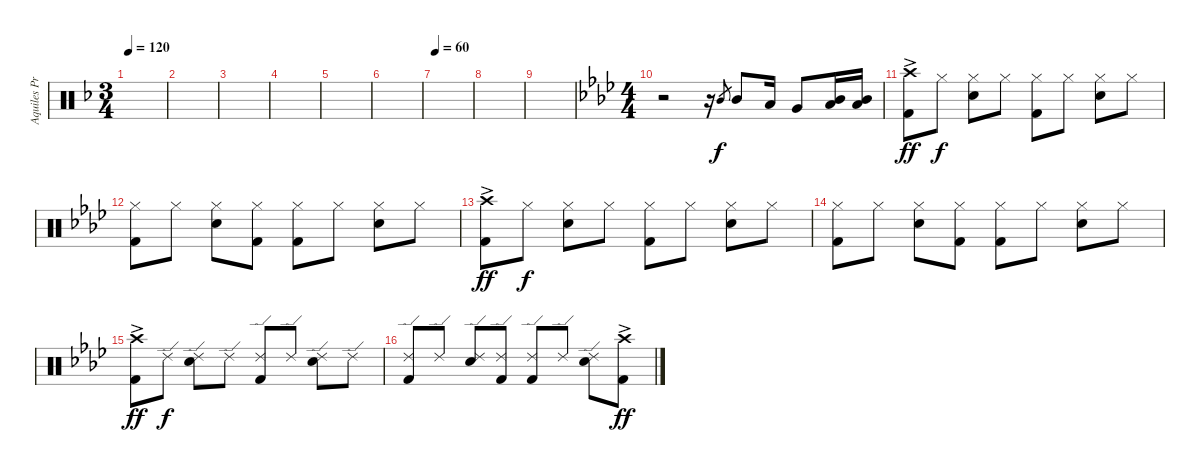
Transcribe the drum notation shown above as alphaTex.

\track ("Aquiles Priester" "Aquiles Pr") {instrument percussion}
\staff {score}
\articulation defaults
\ts (3 4)
\tempo 120
\clef neutral
\ks f
|
|
|
|
|
|
\tempo 60
|
|
|
\ts (4 4)
\ks ab
r.2 r.16 "Mid Tom (hit)".8{gr dy f} "Mid Tom (hit)".8 "Low Tom (hit)".16 "Very Low Tom (hit)".8 ("Mid Tom (hit)" "Low Floor Tom (hit)").16 ("Mid Tom (hit)" "Low Floor Tom (hit)").16 |
("Crash high (hit)"{ac} "Kick (hit) 2"{ac}).8{dy ff} "Hi-Hat (closed)".8{dy f} ("Hi-Hat (closed)" "Electric Snare (hit)").8 "Hi-Hat (closed)".8 ("Hi-Hat (closed)" "Kick (hit) 2").8 "Hi-Hat (closed)".8 ("Hi-Hat (closed)" "Electric Snare (hit)").8 "Hi-Hat (closed)".8 |
("Hi-Hat (closed)" "Kick (hit) 2").8 "Hi-Hat (closed)".8 ("Hi-Hat (closed)" "Electric Snare (hit)").8 ("Hi-Hat (closed)" "Kick (hit) 2").8 ("Hi-Hat (closed)" "Kick (hit) 2").8 "Hi-Hat (closed)".8 ("Hi-Hat (closed)" "Electric Snare (hit)").8 "Hi-Hat (closed)".8 |
("Crash high (hit)"{ac} "Kick (hit) 2"{ac}).8{dy ff} "Hi-Hat (closed)".8{dy f} ("Hi-Hat (closed)" "Electric Snare (hit)").8 "Hi-Hat (closed)".8 ("Hi-Hat (closed)" "Kick (hit) 2").8 "Hi-Hat (closed)".8 ("Hi-Hat (closed)" "Electric Snare (hit)").8 "Hi-Hat (closed)".8 |
("Hi-Hat (closed)" "Kick (hit) 2").8 "Hi-Hat (closed)".8 ("Hi-Hat (closed)" "Electric Snare (hit)").8 ("Hi-Hat (closed)" "Kick (hit) 2").8 ("Hi-Hat (closed)" "Kick (hit) 2").8 "Hi-Hat (closed)".8 ("Hi-Hat (closed)" "Electric Snare (hit)").8 "Hi-Hat (closed)".8 |
("Crash high (hit)"{ac} "Kick (hit) 2"{ac}).8{dy ff} "Ride (edge) 2".8{dy f} ("Ride (edge) 2" "Electric Snare (hit)").8 "Ride (edge) 2".8 ("Ride (edge) 2" "Kick (hit) 2").8 "Ride (edge) 2".8 ("Ride (edge) 2" "Electric Snare (hit)").8 "Ride (edge) 2".8 |
("Ride (edge) 2" "Kick (hit) 2").8 "Ride (edge) 2".8 ("Ride (edge) 2" "Electric Snare (hit)").8 ("Ride (edge) 2" "Kick (hit) 2").8 ("Ride (edge) 2" "Kick (hit) 2").8 "Ride (edge) 2".8 ("Ride (edge) 2" "Electric Snare (hit)").8 ("Crash high (hit)"{ac} "Kick (hit) 2"{ac}).8{dy ff}
